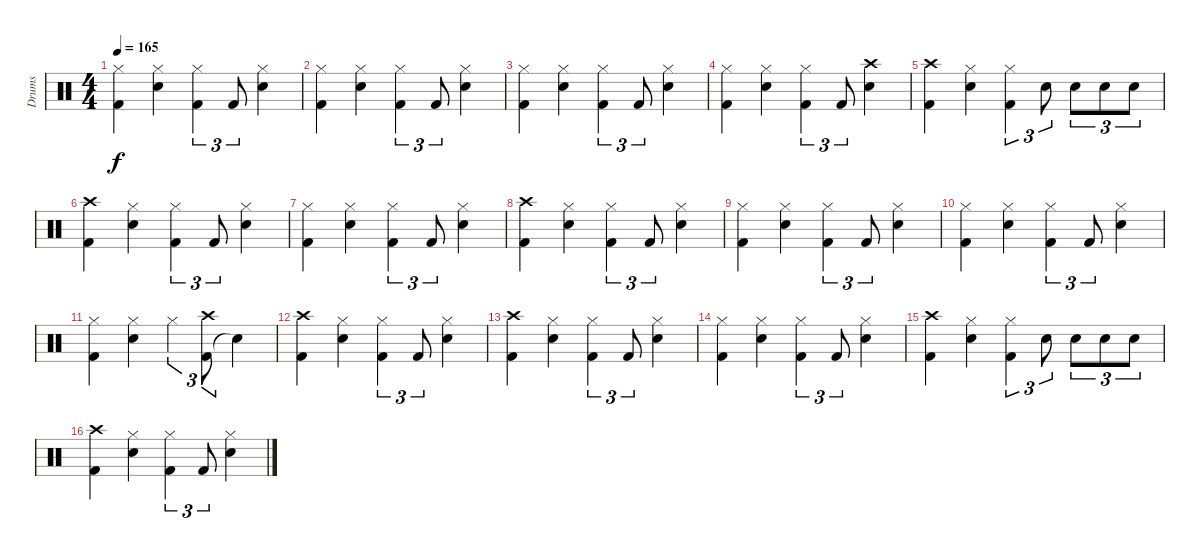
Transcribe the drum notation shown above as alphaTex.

\track ("Drums" "Drums") {instrument percussion}
\staff {score}
\articulation defaults
\ts (4 4)
\tempo 165
\clef neutral
\ks c
("Hi-Hat (closed)" "Kick (hit) 2").4{dy f} ("Hi-Hat (closed)" "Electric Snare (hit)").4 ("Hi-Hat (closed)" "Kick (hit) 2").4{tu (3 2)} "Kick (hit) 2".8{tu (3 2)} ("Hi-Hat (closed)" "Electric Snare (hit)").4 |
("Hi-Hat (closed)" "Kick (hit) 2").4 ("Hi-Hat (closed)" "Electric Snare (hit)").4 ("Hi-Hat (closed)" "Kick (hit) 2").4{tu (3 2)} "Kick (hit) 2".8{tu (3 2)} ("Hi-Hat (closed)" "Electric Snare (hit)").4 |
("Hi-Hat (closed)" "Kick (hit) 2").4 ("Hi-Hat (closed)" "Electric Snare (hit)").4 ("Hi-Hat (closed)" "Kick (hit) 2").4{tu (3 2)} "Kick (hit) 2".8{tu (3 2)} ("Hi-Hat (closed)" "Electric Snare (hit)").4 |
("Hi-Hat (closed)" "Kick (hit) 2").4 ("Hi-Hat (closed)" "Electric Snare (hit)").4 ("Hi-Hat (closed)" "Kick (hit) 2").4{tu (3 2)} "Kick (hit) 2".8{tu (3 2)} ("Crash high (hit)" "Electric Snare (hit)").4 |
("Crash high (hit)" "Kick (hit) 2").4 ("Hi-Hat (closed)" "Electric Snare (hit)").4 ("Hi-Hat (closed)" "Kick (hit) 2").4{tu (3 2)} "Electric Snare (hit)".8{tu (3 2)} "Electric Snare (hit)".8{tu (3 2)} "Electric Snare (hit)".8{tu (3 2)} "Electric Snare (hit)".8{tu (3 2)} |
("Crash high (hit)" "Kick (hit) 2").4 ("Hi-Hat (closed)" "Electric Snare (hit)").4 ("Hi-Hat (closed)" "Kick (hit) 2").4{tu (3 2)} "Kick (hit) 2".8{tu (3 2)} ("Hi-Hat (closed)" "Electric Snare (hit)").4 |
("Hi-Hat (closed)" "Kick (hit) 2").4 ("Hi-Hat (closed)" "Electric Snare (hit)").4 ("Hi-Hat (closed)" "Kick (hit) 2").4{tu (3 2)} "Kick (hit) 2".8{tu (3 2)} ("Hi-Hat (closed)" "Electric Snare (hit)").4 |
("Crash high (hit)" "Kick (hit) 2").4 ("Hi-Hat (closed)" "Electric Snare (hit)").4 ("Hi-Hat (closed)" "Kick (hit) 2").4{tu (3 2)} "Kick (hit) 2".8{tu (3 2)} ("Hi-Hat (closed)" "Electric Snare (hit)").4 |
("Hi-Hat (closed)" "Kick (hit) 2").4 ("Hi-Hat (closed)" "Electric Snare (hit)").4 ("Hi-Hat (closed)" "Kick (hit) 2").4{tu (3 2)} "Kick (hit) 2".8{tu (3 2)} ("Hi-Hat (closed)" "Electric Snare (hit)").4 |
("Hi-Hat (closed)" "Kick (hit) 2").4 ("Hi-Hat (closed)" "Electric Snare (hit)").4 ("Hi-Hat (closed)" "Kick (hit) 2").4{tu (3 2)} "Kick (hit) 2".8{tu (3 2)} ("Hi-Hat (closed)" "Electric Snare (hit)").4 |
("Hi-Hat (closed)" "Kick (hit) 2").4 ("Hi-Hat (closed)" "Electric Snare (hit)").4 "Hi-Hat (closed)".4{tu (3 2)} ("Kick (hit) 2" "Crash high (hit)").8{tu (3 2)} "Snare (hit)"{t}.4 |
("Crash high (hit)" "Kick (hit) 2").4 ("Hi-Hat (closed)" "Electric Snare (hit)").4 ("Hi-Hat (closed)" "Kick (hit) 2").4{tu (3 2)} "Kick (hit) 2".8{tu (3 2)} ("Hi-Hat (closed)" "Electric Snare (hit)").4 |
("Crash high (hit)" "Kick (hit) 2").4 ("Hi-Hat (closed)" "Electric Snare (hit)").4 ("Hi-Hat (closed)" "Kick (hit) 2").4{tu (3 2)} "Kick (hit) 2".8{tu (3 2)} ("Hi-Hat (closed)" "Electric Snare (hit)").4 |
("Hi-Hat (closed)" "Kick (hit) 2").4 ("Hi-Hat (closed)" "Electric Snare (hit)").4 ("Hi-Hat (closed)" "Kick (hit) 2").4{tu (3 2)} "Kick (hit) 2".8{tu (3 2)} ("Hi-Hat (closed)" "Electric Snare (hit)").4 |
("Crash high (hit)" "Kick (hit) 2").4 ("Hi-Hat (closed)" "Electric Snare (hit)").4 ("Hi-Hat (closed)" "Kick (hit) 2").4{tu (3 2)} "Electric Snare (hit)".8{tu (3 2)} "Electric Snare (hit)".8{tu (3 2)} "Electric Snare (hit)".8{tu (3 2)} "Electric Snare (hit)".8{tu (3 2)} |
("Crash high (hit)" "Kick (hit) 2").4 ("Hi-Hat (closed)" "Electric Snare (hit)").4 ("Hi-Hat (closed)" "Kick (hit) 2").4{tu (3 2)} "Kick (hit) 2".8{tu (3 2)} ("Hi-Hat (closed)" "Electric Snare (hit)").4
